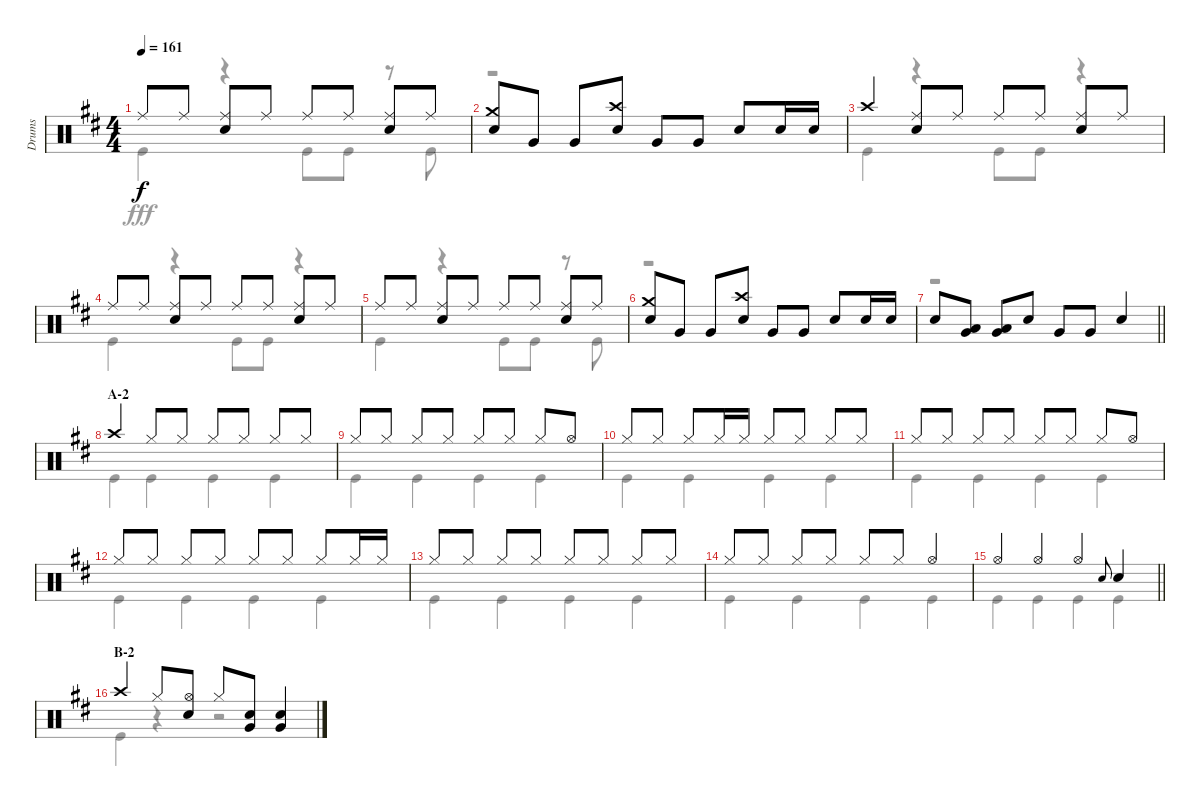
\track ("Drums" "Drums") {instrument percussion}
\staff {score}
\articulation defaults
\voice
\ts (4 4)
\tempo 161
\clef neutral
\ks d "Ride (middle)".8{dy f} "Ride (middle)".8
("Ride (middle)" "Snare (hit) 2").8 "Ride (middle)".8 "Ride (middle)".8 "Ride (middle)".8 ("Ride (middle)" "Snare (hit) 2").8 "Ride (middle)".8 |
("Crash medium (hit)" "Snare (hit) 2").8 "Very Low Tom (hit)".8 "Very Low Tom (hit)".8 ("Crash high (hit)" "Snare (hit) 2").8 "Very Low Tom (hit)".8 "Very Low Tom (hit)".8 "Snare (hit) 2".8 "Snare (hit) 2".16 "Snare (hit) 2".16 |
"Crash high (hit)".4 ("Ride (middle)" "Snare (hit) 2").8 "Ride (middle)".8 "Ride (middle)".8 "Ride (middle)".8 ("Ride (middle)" "Snare (hit) 2").8 "Ride (middle)".8 |
"Ride (middle)".8 "Ride (middle)".8 ("Ride (middle)" "Snare (hit) 2").8 "Ride (middle)".8 "Ride (middle)".8 "Ride (middle)".8 ("Ride (middle)" "Snare (hit) 2").8 "Ride (middle)".8 |
"Ride (middle)".8 "Ride (middle)".8 ("Ride (middle)" "Snare (hit) 2").8 "Ride (middle)".8 "Ride (middle)".8 "Ride (middle)".8 ("Ride (middle)" "Snare (hit) 2").8 "Ride (middle)".8 |
("Crash medium (hit)" "Snare (hit) 2").8 "Very Low Tom (hit)".8 "Very Low Tom (hit)".8 ("Crash high (hit)" "Snare (hit) 2").8 "Very Low Tom (hit)".8 "Very Low Tom (hit)".8 "Snare (hit) 2".8 "Snare (hit) 2".16 "Snare (hit) 2".16 |
\barLineRight lightlight "Snare (hit) 2".8
("Low Tom (hit)" "Very Low Tom (hit)").8 ("Low Tom (hit)" "Very Low Tom (hit)").8 "Snare (hit) 2".8 "Very Low Tom (hit)".8 "Very Low Tom (hit)".8 "Snare (hit) 2".4 |
\section ("" "A-2")
"Crash high (hit)".4 "Hi-Hat (closed)".8 "Hi-Hat (closed)".8 "Hi-Hat (closed)".8 "Hi-Hat (closed)".8 "Hi-Hat (closed)".8 "Hi-Hat (closed)".8 |
"Hi-Hat (closed)".8 "Hi-Hat (closed)".8 "Hi-Hat (closed)".8 "Hi-Hat (closed)".8 "Hi-Hat (closed)".8 "Hi-Hat (closed)".8 "Hi-Hat (closed)".8 "Hi-Hat (open)".8 |
"Hi-Hat (closed)".8 "Hi-Hat (closed)".8 "Hi-Hat (closed)".8 "Hi-Hat (closed)".16 "Hi-Hat (closed)".16 "Hi-Hat (closed)".8 "Hi-Hat (closed)".8 "Hi-Hat (closed)".8 "Hi-Hat (closed)".8 |
"Hi-Hat (closed)".8 "Hi-Hat (closed)".8 "Hi-Hat (closed)".8 "Hi-Hat (closed)".8 "Hi-Hat (closed)".8 "Hi-Hat (closed)".8 "Hi-Hat (closed)".8 "Hi-Hat (open)".8 |
"Hi-Hat (closed)".8 "Hi-Hat (closed)".8 "Hi-Hat (closed)".8 "Hi-Hat (closed)".8 "Hi-Hat (closed)".8 "Hi-Hat (closed)".8 "Hi-Hat (closed)".8 "Hi-Hat (closed)".16 "Hi-Hat (closed)".16 |
"Hi-Hat (closed)".8 "Hi-Hat (closed)".8 "Hi-Hat (closed)".8 "Hi-Hat (closed)".8 "Hi-Hat (closed)".8 "Hi-Hat (closed)".8 "Hi-Hat (closed)".8 "Hi-Hat (closed)".8 |
"Hi-Hat (closed)".8 "Hi-Hat (closed)".8 "Hi-Hat (closed)".8 "Hi-Hat (closed)".8 "Hi-Hat (closed)".8 "Hi-Hat (closed)".8 "Hi-Hat (open)".4 |
\barLineRight lightlight "Hi-Hat (open)".4 "Hi-Hat (open)".4 "Hi-Hat (open)".4 "Snare (hit) 2".8{gr onbeat} "Snare (hit) 2".4
|
\section ("" "B-2")
"Crash high (hit)".4 "Hi-Hat (closed)".8 ("Hi-Hat (open)" "Snare (hit) 2").8 "Hi-Hat (closed)".8 ("Snare (hit) 2" "Very Low Tom (hit)").8 ("Snare (hit) 2" "Very Low Tom (hit)").4
\voice
\clef neutral
\ottava regular
\simile none
\ks d "Kick (hit)".4{dy fff}
r.4 "Kick (hit)".8 "Kick (hit)".8 r.8 "Kick (hit)".8 |
r.1 |
"Kick (hit)".4 r.4 "Kick (hit)".8 "Kick (hit)".8 r.4 |
"Kick (hit)".4 r.4 "Kick (hit)".8 "Kick (hit)".8 r.4 |
"Kick (hit)".4 r.4 "Kick (hit)".8 "Kick (hit)".8 r.8 "Kick (hit)".8 |
r.1 |
\barLineRight lightlight
r.1 |
"Kick (hit)".4 "Kick (hit)".4 "Kick (hit)".4 "Kick (hit)".4 |
"Kick (hit)".4 "Kick (hit)".4 "Kick (hit)".4 "Kick (hit)".4 |
"Kick (hit)".4 "Kick (hit)".4 "Kick (hit)".4 "Kick (hit)".4 |
"Kick (hit)".4 "Kick (hit)".4 "Kick (hit)".4 "Kick (hit)".4 |
"Kick (hit)".4 "Kick (hit)".4 "Kick (hit)".4 "Kick (hit)".4 |
"Kick (hit)".4 "Kick (hit)".4 "Kick (hit)".4 "Kick (hit)".4 |
"Kick (hit)".4 "Kick (hit)".4 "Kick (hit)".4 "Kick (hit)".4 |
\barLineRight lightlight "Kick (hit)".4 "Kick (hit)".4 "Kick (hit)".4 "Kick (hit)".4
|
"Kick (hit)".4 r.4 r.2
